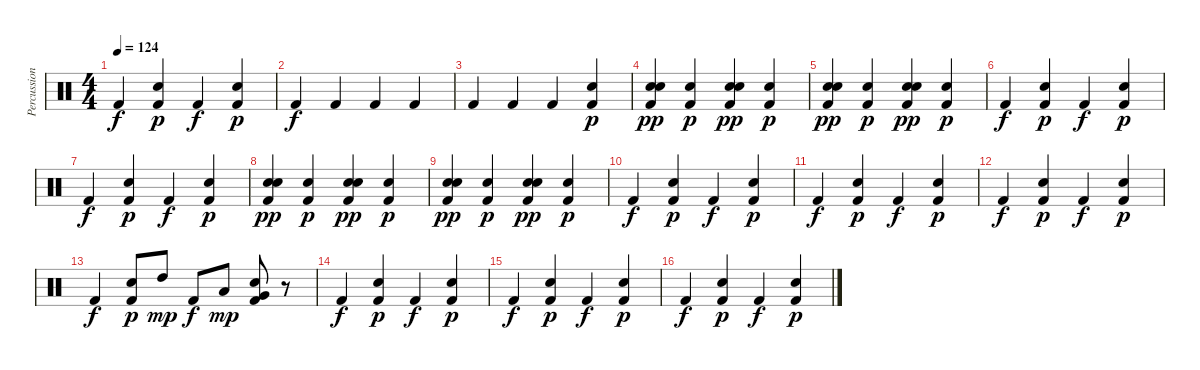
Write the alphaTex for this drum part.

\track ("Percussion" "Percussion") {instrument percussion}
\staff {score}
\articulation defaults
\ts (4 4)
\tempo 124
\clef neutral
\ks c "Kick (hit) 2".4{dy f}
("Snare (hit) 2" "Kick (hit) 2").4{dy p} "Kick (hit) 2".4{dy f} ("Snare (hit) 2" "Kick (hit) 2").4{dy p} |
"Kick (hit) 2".4{dy f} "Kick (hit) 2".4 "Kick (hit) 2".4 "Kick (hit) 2".4 |
"Kick (hit) 2".4 "Kick (hit) 2".4 "Kick (hit) 2".4 ("Snare (hit) 2" "Kick (hit) 2").4{dy p} |
("Electric Snare (hit)" "Snare (hit) 2" "Kick (hit) 2").4{dy pp} ("Snare (hit) 2" "Kick (hit) 2").4{dy p} ("Electric Snare (hit)" "Snare (hit) 2" "Kick (hit) 2").4{dy pp} ("Snare (hit) 2" "Kick (hit) 2").4{dy p} |
("Electric Snare (hit)" "Snare (hit) 2" "Kick (hit) 2").4{dy pp} ("Snare (hit) 2" "Kick (hit) 2").4{dy p} ("Electric Snare (hit)" "Snare (hit) 2" "Kick (hit) 2").4{dy pp} ("Snare (hit) 2" "Kick (hit) 2").4{dy p} |
"Kick (hit) 2".4{dy f} ("Snare (hit) 2" "Kick (hit) 2").4{dy p} "Kick (hit) 2".4{dy f} ("Snare (hit) 2" "Kick (hit) 2").4{dy p} |
"Kick (hit) 2".4{dy f} ("Snare (hit) 2" "Kick (hit) 2").4{dy p} "Kick (hit) 2".4{dy f} ("Snare (hit) 2" "Kick (hit) 2").4{dy p} |
("Electric Snare (hit)" "Snare (hit) 2" "Kick (hit) 2").4{dy pp} ("Snare (hit) 2" "Kick (hit) 2").4{dy p} ("Electric Snare (hit)" "Snare (hit) 2" "Kick (hit) 2").4{dy pp} ("Snare (hit) 2" "Kick (hit) 2").4{dy p} |
("Electric Snare (hit)" "Snare (hit) 2" "Kick (hit) 2").4{dy pp} ("Snare (hit) 2" "Kick (hit) 2").4{dy p} ("Electric Snare (hit)" "Snare (hit) 2" "Kick (hit) 2").4{dy pp} ("Snare (hit) 2" "Kick (hit) 2").4{dy p} |
"Kick (hit) 2".4{dy f} ("Snare (hit) 2" "Kick (hit) 2").4{dy p} "Kick (hit) 2".4{dy f} ("Snare (hit) 2" "Kick (hit) 2").4{dy p} |
"Kick (hit) 2".4{dy f} ("Snare (hit) 2" "Kick (hit) 2").4{dy p} "Kick (hit) 2".4{dy f} ("Snare (hit) 2" "Kick (hit) 2").4{dy p} |
"Kick (hit) 2".4{dy f} ("Snare (hit) 2" "Kick (hit) 2").4{dy p} "Kick (hit) 2".4{dy f} ("Snare (hit) 2" "Kick (hit) 2").4{dy p} |
"Kick (hit) 2".4{dy f} ("Snare (hit) 2" "Kick (hit) 2").8{dy p} "High Tom (hit)".8{dy mp} "Kick (hit) 2".8{dy f} "Low Tom (hit)".8{dy mp} ("Snare (hit) 2" "Very Low Tom (hit)" "Kick (hit) 2").8 r.8 |
"Kick (hit) 2".4{dy f} ("Snare (hit) 2" "Kick (hit) 2").4{dy p} "Kick (hit) 2".4{dy f} ("Snare (hit) 2" "Kick (hit) 2").4{dy p} |
"Kick (hit) 2".4{dy f} ("Snare (hit) 2" "Kick (hit) 2").4{dy p} "Kick (hit) 2".4{dy f} ("Snare (hit) 2" "Kick (hit) 2").4{dy p} |
"Kick (hit) 2".4{dy f} ("Snare (hit) 2" "Kick (hit) 2").4{dy p} "Kick (hit) 2".4{dy f} ("Snare (hit) 2" "Kick (hit) 2").4{dy p}
